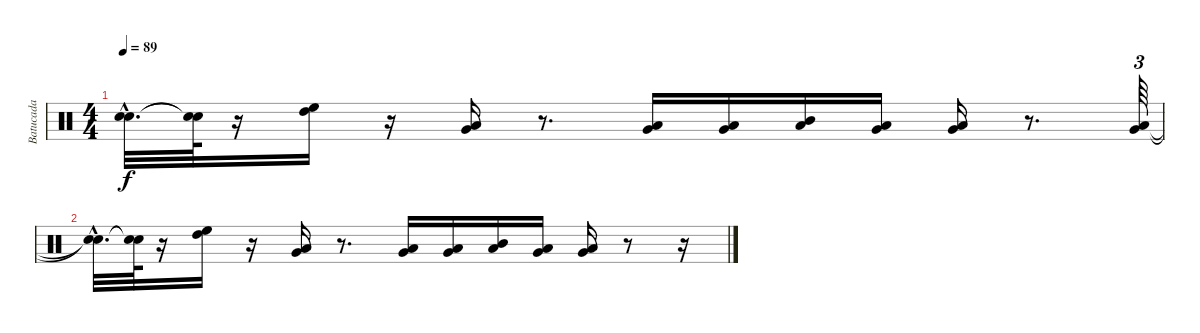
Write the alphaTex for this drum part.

\track ("Batucada" "Batucada") {instrument percussion}
\staff {score}
\articulation defaults
\ts (4 4)
\tempo 89
\clef neutral
\ks c
("Snare (hit)"{hac t} "Snare (hit)"{hac t}).32{d dy f} ("Snare (hit)"{t} "Snare (hit)"{t}).64 r.16 ("High Floor Tom (hit)" "High Tom (hit)").16{volume 0} r.16 ("Very Low Tom (hit)" "Low Floor Tom (hit)").16 r.8{d} ("Very Low Tom (hit)" "Low Floor Tom (hit)").16 ("Very Low Tom (hit)" "Low Floor Tom (hit)").16 ("Mid Tom (hit)" "Low Floor Tom (hit)").16 ("Very Low Tom (hit)" "Low Floor Tom (hit)").16 ("Very Low Tom (hit)" "Low Floor Tom (hit)").16 r.8{d} ("Very Low Tom (hit)" "Low Floor Tom (hit)").64{tu (3 2)} |
("Snare (hit)"{hac t} "Snare (hit)"{hac t}).32{d} ("Snare (hit)"{t} "Snare (hit)"{t}).64 r.16 ("High Floor Tom (hit)" "High Tom (hit)").16 r.16 ("Very Low Tom (hit)" "Low Floor Tom (hit)").16 r.8{d} ("Very Low Tom (hit)" "Low Floor Tom (hit)").16 ("Very Low Tom (hit)" "Low Floor Tom (hit)").16 ("Mid Tom (hit)" "Low Floor Tom (hit)").16 ("Very Low Tom (hit)" "Low Floor Tom (hit)").16 ("Very Low Tom (hit)" "Low Floor Tom (hit)").16 r.8 r.16
